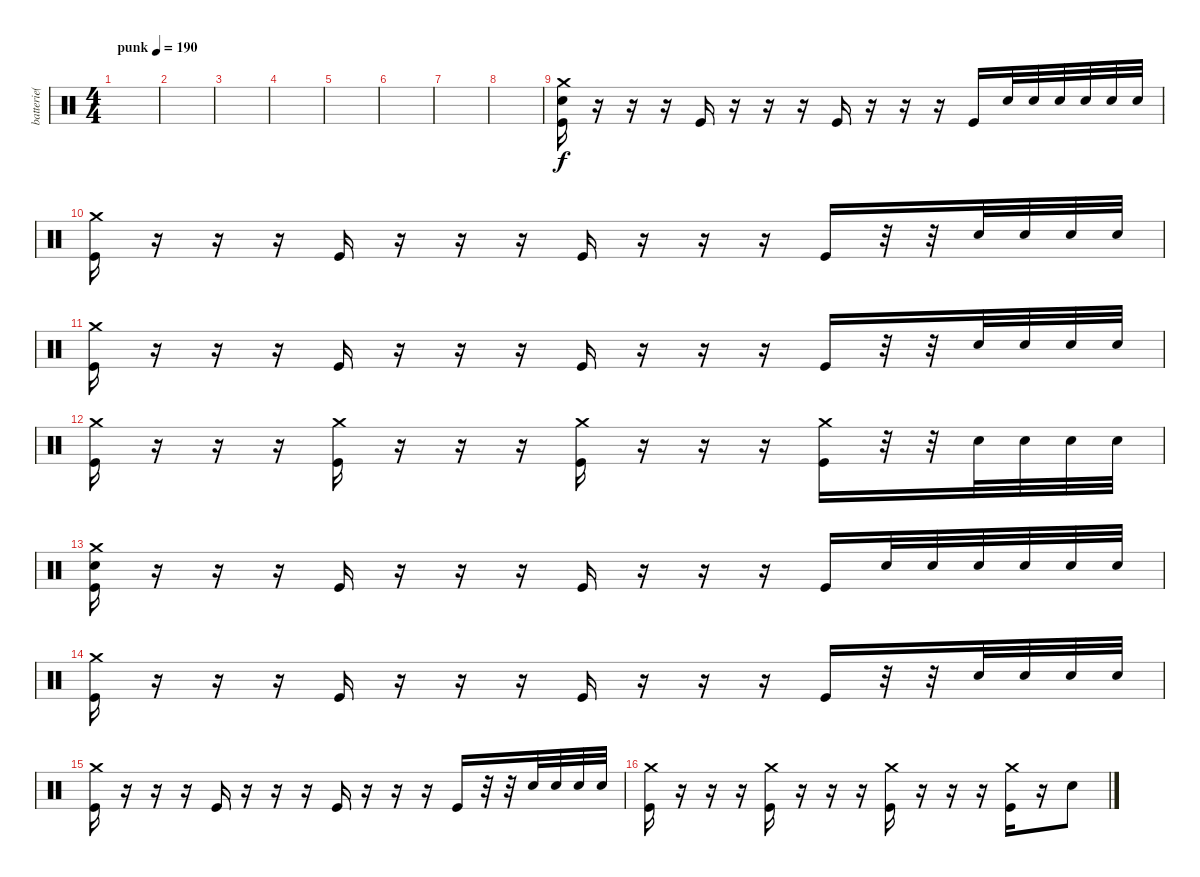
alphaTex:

\track ("batterie( Meggers )" "batterie( ") {instrument percussion}
\staff {score}
\articulation defaults
\ts (4 4)
\tempo (190 "punk")
\clef neutral
\ks c
|
|
|
|
|
|
|
|
("Crash medium (hit)" "Snare (hit) 2" "Kick (hit)").16 r.16 r.16 r.16 "Kick (hit)".16 r.16 r.16 r.16 "Kick (hit)".16 r.16 r.16 r.16 "Kick (hit)".16 "Snare (hit) 2".32 "Snare (hit) 2".32 "Snare (hit) 2".32 "Snare (hit) 2".32 "Snare (hit) 2".32 "Snare (hit) 2".32 |
("Crash medium (hit)" "Kick (hit)").16 r.16 r.16 r.16 "Kick (hit)".16 r.16 r.16 r.16 "Kick (hit)".16 r.16 r.16 r.16 "Kick (hit)".16 r.32 r.32 "Snare (hit) 2".32 "Snare (hit) 2".32 "Snare (hit) 2".32 "Snare (hit) 2".32 |
("Crash medium (hit)" "Kick (hit)").16 r.16 r.16 r.16 "Kick (hit)".16 r.16 r.16 r.16 "Kick (hit)".16 r.16 r.16 r.16 "Kick (hit)".16 r.32 r.32 "Snare (hit) 2".32 "Snare (hit) 2".32 "Snare (hit) 2".32 "Snare (hit) 2".32 |
("Crash medium (hit)" "Kick (hit)").16 r.16 r.16 r.16 ("Crash medium (hit)" "Kick (hit)").16 r.16 r.16 r.16 ("Crash medium (hit)" "Kick (hit)").16 r.16 r.16 r.16 ("Crash medium (hit)" "Kick (hit)").16 r.32 r.32 "Snare (hit) 2".32 "Snare (hit) 2".32 "Snare (hit) 2".32 "Snare (hit) 2".32 |
("Crash medium (hit)" "Snare (hit) 2" "Kick (hit)").16 r.16 r.16 r.16 "Kick (hit)".16 r.16 r.16 r.16 "Kick (hit)".16 r.16 r.16 r.16 "Kick (hit)".16 "Snare (hit) 2".32 "Snare (hit) 2".32 "Snare (hit) 2".32 "Snare (hit) 2".32 "Snare (hit) 2".32 "Snare (hit) 2".32 |
("Crash medium (hit)" "Kick (hit)").16 r.16 r.16 r.16 "Kick (hit)".16 r.16 r.16 r.16 "Kick (hit)".16 r.16 r.16 r.16 "Kick (hit)".16 r.32 r.32 "Snare (hit) 2".32 "Snare (hit) 2".32 "Snare (hit) 2".32 "Snare (hit) 2".32 |
("Crash medium (hit)" "Kick (hit)").16 r.16 r.16 r.16 "Kick (hit)".16 r.16 r.16 r.16 "Kick (hit)".16 r.16 r.16 r.16 "Kick (hit)".16 r.32 r.32 "Snare (hit) 2".32 "Snare (hit) 2".32 "Snare (hit) 2".32 "Snare (hit) 2".32 |
("Crash medium (hit)" "Kick (hit)").16 r.16 r.16 r.16 ("Crash medium (hit)" "Kick (hit)").16 r.16 r.16 r.16 ("Crash medium (hit)" "Kick (hit)").16 r.16 r.16 r.16 ("Crash medium (hit)" "Kick (hit)").16 r.16 "Snare (hit) 2".8
